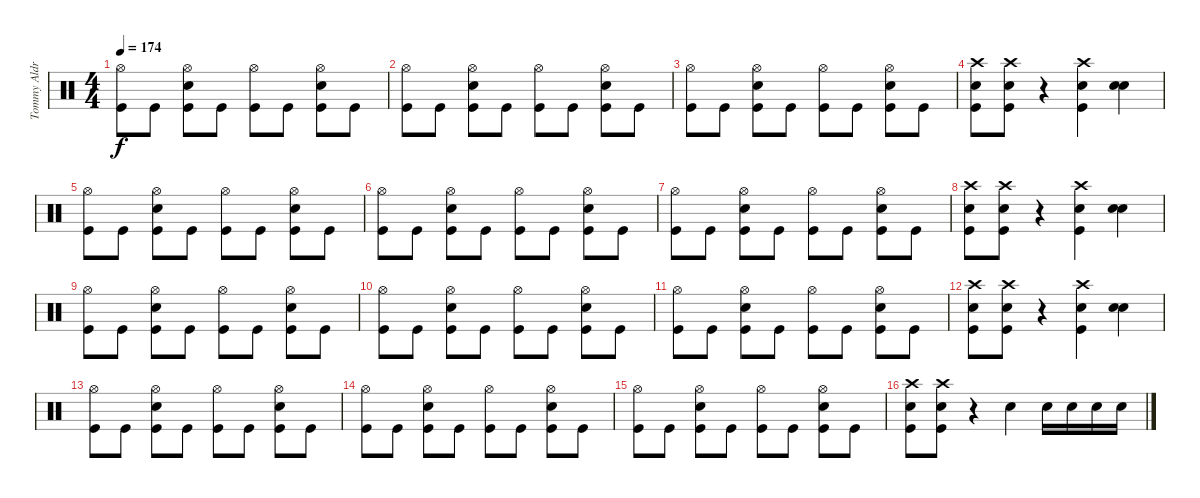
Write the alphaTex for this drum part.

\track ("Tommy Aldrige" "Tommy Aldr") {instrument percussion}
\staff {score}
\articulation defaults
\ts (4 4)
\tempo 174
\clef neutral
\ks c
("Hi-Hat (open)" "Kick (hit)").8{dy f} "Kick (hit)".8 ("Hi-Hat (open)" "Kick (hit)" "Snare (hit) 2").8 "Kick (hit)".8 ("Hi-Hat (open)" "Kick (hit)").8 "Kick (hit)".8 ("Hi-Hat (open)" "Kick (hit)" "Snare (hit) 2").8 "Kick (hit)".8 |
("Hi-Hat (open)" "Kick (hit)").8 "Kick (hit)".8 ("Hi-Hat (open)" "Kick (hit)" "Snare (hit) 2").8 "Kick (hit)".8 ("Hi-Hat (open)" "Kick (hit)").8 "Kick (hit)".8 ("Hi-Hat (open)" "Kick (hit)" "Snare (hit) 2").8 "Kick (hit)".8 |
("Hi-Hat (open)" "Kick (hit)").8 "Kick (hit)".8 ("Hi-Hat (open)" "Kick (hit)" "Snare (hit) 2").8 "Kick (hit)".8 ("Hi-Hat (open)" "Kick (hit)").8 "Kick (hit)".8 ("Hi-Hat (open)" "Kick (hit)" "Snare (hit) 2").8 "Kick (hit)".8 |
("Crash high (hit)" "Kick (hit)" "Snare (hit) 2").8 ("Crash high (hit)" "Kick (hit)" "Snare (hit) 2").8 r.4 ("Crash high (hit)" "Kick (hit)" "Snare (hit) 2").4 ("Snare (hit) 2" "Snare (hit) 2").4{bu 240} |
("Hi-Hat (open)" "Kick (hit)").8 "Kick (hit)".8 ("Hi-Hat (open)" "Kick (hit)" "Snare (hit) 2").8 "Kick (hit)".8 ("Hi-Hat (open)" "Kick (hit)").8 "Kick (hit)".8 ("Hi-Hat (open)" "Kick (hit)" "Snare (hit) 2").8 "Kick (hit)".8 |
("Hi-Hat (open)" "Kick (hit)").8 "Kick (hit)".8 ("Hi-Hat (open)" "Kick (hit)" "Snare (hit) 2").8 "Kick (hit)".8 ("Hi-Hat (open)" "Kick (hit)").8 "Kick (hit)".8 ("Hi-Hat (open)" "Kick (hit)" "Snare (hit) 2").8 "Kick (hit)".8 |
("Hi-Hat (open)" "Kick (hit)").8 "Kick (hit)".8 ("Hi-Hat (open)" "Kick (hit)" "Snare (hit) 2").8 "Kick (hit)".8 ("Hi-Hat (open)" "Kick (hit)").8 "Kick (hit)".8 ("Hi-Hat (open)" "Kick (hit)" "Snare (hit) 2").8 "Kick (hit)".8 |
("Crash high (hit)" "Kick (hit)" "Snare (hit) 2").8 ("Crash high (hit)" "Kick (hit)" "Snare (hit) 2").8 r.4 ("Crash high (hit)" "Kick (hit)" "Snare (hit) 2").4 ("Snare (hit) 2" "Snare (hit) 2").4{bu 240} |
("Hi-Hat (open)" "Kick (hit)").8 "Kick (hit)".8 ("Hi-Hat (open)" "Kick (hit)" "Snare (hit) 2").8 "Kick (hit)".8 ("Hi-Hat (open)" "Kick (hit)").8 "Kick (hit)".8 ("Hi-Hat (open)" "Kick (hit)" "Snare (hit) 2").8 "Kick (hit)".8 |
("Hi-Hat (open)" "Kick (hit)").8 "Kick (hit)".8 ("Hi-Hat (open)" "Kick (hit)" "Snare (hit) 2").8 "Kick (hit)".8 ("Hi-Hat (open)" "Kick (hit)").8 "Kick (hit)".8 ("Hi-Hat (open)" "Kick (hit)" "Snare (hit) 2").8 "Kick (hit)".8 |
("Hi-Hat (open)" "Kick (hit)").8 "Kick (hit)".8 ("Hi-Hat (open)" "Kick (hit)" "Snare (hit) 2").8 "Kick (hit)".8 ("Hi-Hat (open)" "Kick (hit)").8 "Kick (hit)".8 ("Hi-Hat (open)" "Kick (hit)" "Snare (hit) 2").8 "Kick (hit)".8 |
("Crash high (hit)" "Kick (hit)" "Snare (hit) 2").8 ("Crash high (hit)" "Kick (hit)" "Snare (hit) 2").8 r.4 ("Crash high (hit)" "Kick (hit)" "Snare (hit) 2").4 ("Snare (hit) 2" "Snare (hit) 2").4{bu 240} |
("Hi-Hat (open)" "Kick (hit)").8 "Kick (hit)".8 ("Hi-Hat (open)" "Kick (hit)" "Snare (hit) 2").8 "Kick (hit)".8 ("Hi-Hat (open)" "Kick (hit)").8 "Kick (hit)".8 ("Hi-Hat (open)" "Kick (hit)" "Snare (hit) 2").8 "Kick (hit)".8 |
("Hi-Hat (open)" "Kick (hit)").8 "Kick (hit)".8 ("Hi-Hat (open)" "Kick (hit)" "Snare (hit) 2").8 "Kick (hit)".8 ("Hi-Hat (open)" "Kick (hit)").8 "Kick (hit)".8 ("Hi-Hat (open)" "Kick (hit)" "Snare (hit) 2").8 "Kick (hit)".8 |
("Hi-Hat (open)" "Kick (hit)").8 "Kick (hit)".8 ("Hi-Hat (open)" "Kick (hit)" "Snare (hit) 2").8 "Kick (hit)".8 ("Hi-Hat (open)" "Kick (hit)").8 "Kick (hit)".8 ("Hi-Hat (open)" "Kick (hit)" "Snare (hit) 2").8 "Kick (hit)".8 |
("Crash high (hit)" "Kick (hit)" "Snare (hit) 2").8 ("Crash high (hit)" "Kick (hit)" "Snare (hit) 2").8 r.4 "Snare (hit) 2".4 "Snare (hit) 2".16 "Snare (hit) 2".16 "Snare (hit) 2".16 "Snare (hit) 2".16
